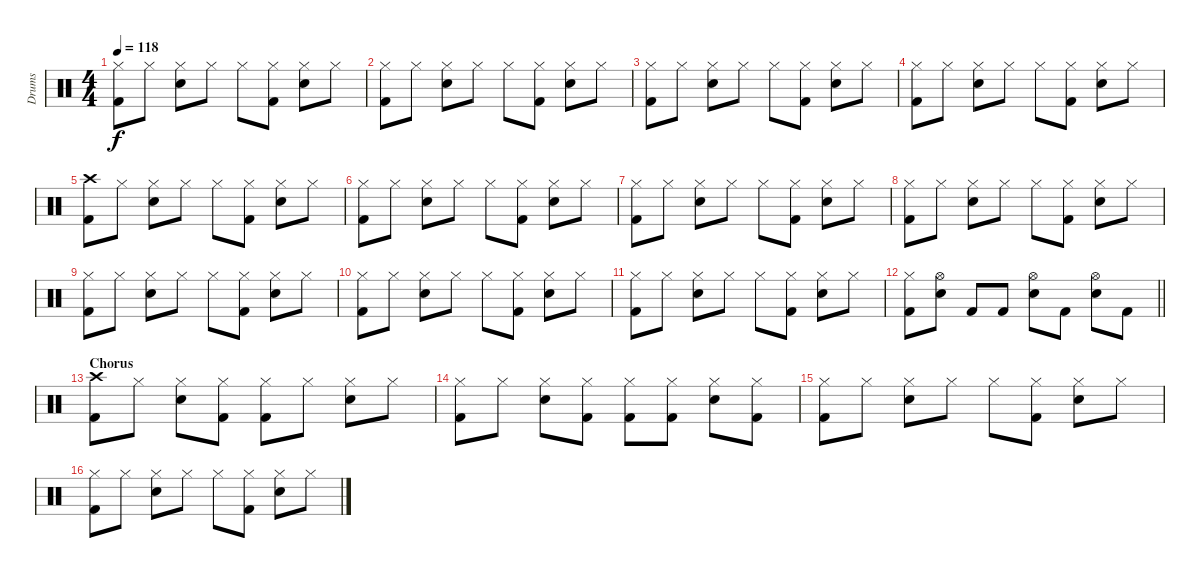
\track ("Drums" "Drums") {instrument percussion}
\staff {score}
\articulation defaults
\ts (4 4)
\tempo 118
\clef neutral
\ks c
("Hi-Hat (closed)" "Kick (hit) 2").8{dy f} "Hi-Hat (closed)".8 ("Hi-Hat (closed)" "Electric Snare (hit)").8 "Hi-Hat (closed)".8 "Hi-Hat (closed)".8 ("Hi-Hat (closed)" "Kick (hit) 2").8 ("Hi-Hat (closed)" "Electric Snare (hit)").8 "Hi-Hat (closed)".8 |
("Hi-Hat (closed)" "Kick (hit) 2").8 "Hi-Hat (closed)".8 ("Hi-Hat (closed)" "Electric Snare (hit)").8 "Hi-Hat (closed)".8 "Hi-Hat (closed)".8 ("Hi-Hat (closed)" "Kick (hit) 2").8 ("Hi-Hat (closed)" "Electric Snare (hit)").8 "Hi-Hat (closed)".8 |
("Hi-Hat (closed)" "Kick (hit) 2").8 "Hi-Hat (closed)".8 ("Hi-Hat (closed)" "Electric Snare (hit)").8 "Hi-Hat (closed)".8 "Hi-Hat (closed)".8 ("Hi-Hat (closed)" "Kick (hit) 2").8 ("Hi-Hat (closed)" "Electric Snare (hit)").8 "Hi-Hat (closed)".8 |
("Hi-Hat (closed)" "Kick (hit) 2").8 "Hi-Hat (closed)".8 ("Hi-Hat (closed)" "Electric Snare (hit)").8 "Hi-Hat (closed)".8 "Hi-Hat (closed)".8 ("Hi-Hat (closed)" "Kick (hit) 2").8 ("Hi-Hat (closed)" "Electric Snare (hit)").8 "Hi-Hat (closed)".8 |
("Crash high (hit)" "Kick (hit) 2").8 "Hi-Hat (closed)".8 ("Hi-Hat (closed)" "Electric Snare (hit)").8 "Hi-Hat (closed)".8 "Hi-Hat (closed)".8 ("Hi-Hat (closed)" "Kick (hit) 2").8 ("Hi-Hat (closed)" "Electric Snare (hit)").8 "Hi-Hat (closed)".8 |
("Hi-Hat (closed)" "Kick (hit) 2").8 "Hi-Hat (closed)".8 ("Hi-Hat (closed)" "Electric Snare (hit)").8 "Hi-Hat (closed)".8 "Hi-Hat (closed)".8 ("Hi-Hat (closed)" "Kick (hit) 2").8 ("Hi-Hat (closed)" "Electric Snare (hit)").8 "Hi-Hat (closed)".8 |
("Hi-Hat (closed)" "Kick (hit) 2").8 "Hi-Hat (closed)".8 ("Hi-Hat (closed)" "Electric Snare (hit)").8 "Hi-Hat (closed)".8 "Hi-Hat (closed)".8 ("Hi-Hat (closed)" "Kick (hit) 2").8 ("Hi-Hat (closed)" "Electric Snare (hit)").8 "Hi-Hat (closed)".8 |
("Hi-Hat (closed)" "Kick (hit) 2").8 "Hi-Hat (closed)".8 ("Hi-Hat (closed)" "Electric Snare (hit)").8 "Hi-Hat (closed)".8 "Hi-Hat (closed)".8 ("Hi-Hat (closed)" "Kick (hit) 2").8 ("Hi-Hat (closed)" "Electric Snare (hit)").8 "Hi-Hat (closed)".8 |
("Hi-Hat (closed)" "Kick (hit) 2").8 "Hi-Hat (closed)".8 ("Hi-Hat (closed)" "Electric Snare (hit)").8 "Hi-Hat (closed)".8 "Hi-Hat (closed)".8 ("Hi-Hat (closed)" "Kick (hit) 2").8 ("Hi-Hat (closed)" "Electric Snare (hit)").8 "Hi-Hat (closed)".8 |
("Hi-Hat (closed)" "Kick (hit) 2").8 "Hi-Hat (closed)".8 ("Hi-Hat (closed)" "Electric Snare (hit)").8 "Hi-Hat (closed)".8 "Hi-Hat (closed)".8 ("Hi-Hat (closed)" "Kick (hit) 2").8 ("Hi-Hat (closed)" "Electric Snare (hit)").8 "Hi-Hat (closed)".8 |
("Hi-Hat (closed)" "Kick (hit) 2").8 "Hi-Hat (closed)".8 ("Hi-Hat (closed)" "Electric Snare (hit)").8 "Hi-Hat (closed)".8 "Hi-Hat (closed)".8 ("Hi-Hat (closed)" "Kick (hit) 2").8 ("Hi-Hat (closed)" "Electric Snare (hit)").8 "Hi-Hat (closed)".8 |
\barLineRight lightlight
("Hi-Hat (closed)" "Kick (hit) 2").8 ("Hi-Hat (open)" "Electric Snare (hit)").8 "Kick (hit) 2".8 "Kick (hit) 2".8 ("Hi-Hat (open)" "Electric Snare (hit)").8 "Kick (hit) 2".8 ("Hi-Hat (open)" "Electric Snare (hit)").8 "Kick (hit) 2".8 |
\section ("" "Chorus")
("Crash high (hit)" "Kick (hit) 2").8 "Hi-Hat (closed)".8 ("Hi-Hat (closed)" "Electric Snare (hit)").8 ("Hi-Hat (closed)" "Kick (hit) 2").8 ("Hi-Hat (closed)" "Kick (hit) 2").8 "Hi-Hat (closed)".8 ("Hi-Hat (closed)" "Electric Snare (hit)").8 "Hi-Hat (closed)".8 |
("Hi-Hat (closed)" "Kick (hit) 2").8 "Hi-Hat (closed)".8 ("Hi-Hat (closed)" "Electric Snare (hit)").8 ("Hi-Hat (closed)" "Kick (hit) 2").8 ("Hi-Hat (closed)" "Kick (hit) 2").8 ("Hi-Hat (closed)" "Kick (hit) 2").8 ("Hi-Hat (closed)" "Electric Snare (hit)").8 ("Hi-Hat (closed)" "Kick (hit) 2").8 |
("Hi-Hat (closed)" "Kick (hit) 2").8 "Hi-Hat (closed)".8 ("Hi-Hat (closed)" "Electric Snare (hit)").8 "Hi-Hat (closed)".8 "Hi-Hat (closed)".8 ("Hi-Hat (closed)" "Kick (hit) 2").8 ("Hi-Hat (closed)" "Electric Snare (hit)").8 "Hi-Hat (closed)".8 |
("Hi-Hat (closed)" "Kick (hit) 2").8 "Hi-Hat (closed)".8 ("Hi-Hat (closed)" "Electric Snare (hit)").8 "Hi-Hat (closed)".8 "Hi-Hat (closed)".8 ("Hi-Hat (closed)" "Kick (hit) 2").8 ("Hi-Hat (closed)" "Electric Snare (hit)").8 "Hi-Hat (closed)".8
